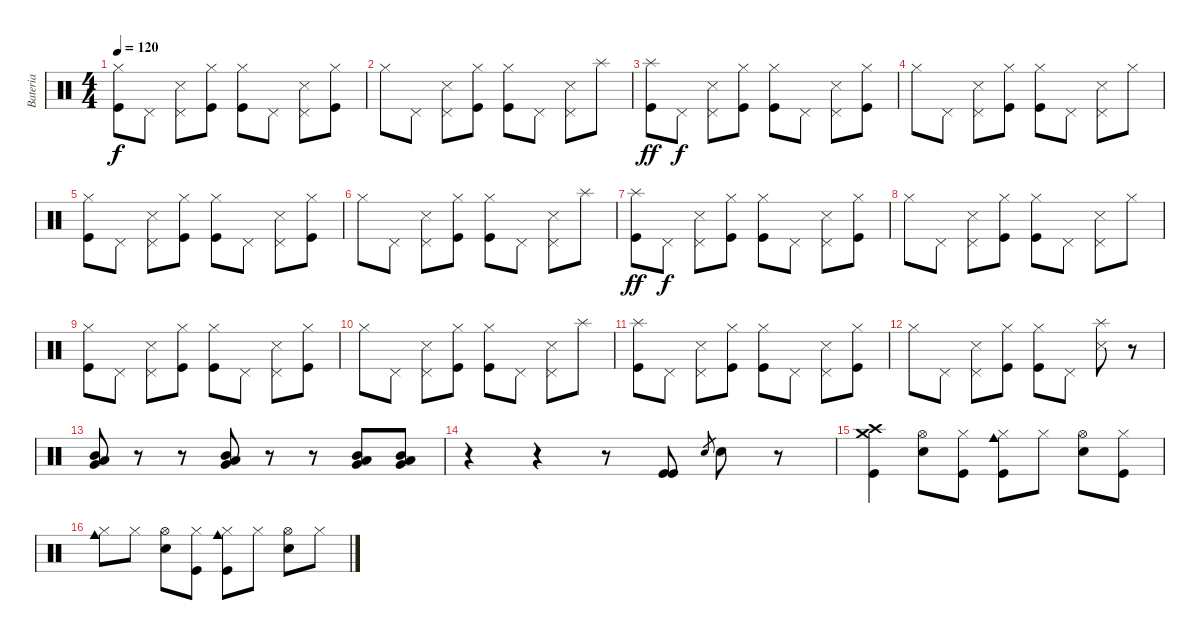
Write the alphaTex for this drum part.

\track ("Bateria" "Bateria") {instrument percussion}
\staff {score}
\articulation defaults
\ts (4 4)
\tempo 120
\clef neutral
\ks c
("Hi-Hat (closed)" "Kick (hit)").8{dy f} "Pedal Hi-Hat (hit)".8 ("Pedal Hi-Hat (hit)" "Snare (side stick) 3").8 ("Hi-Hat (closed)" "Kick (hit)").8 ("Hi-Hat (closed)" "Kick (hit)").8 "Pedal Hi-Hat (hit)".8 ("Pedal Hi-Hat (hit)" "Snare (side stick) 3").8 ("Hi-Hat (closed)" "Kick (hit)").8 |
"Hi-Hat (closed)".8 "Pedal Hi-Hat (hit)".8 ("Pedal Hi-Hat (hit)" "Snare (side stick) 3").8 ("Hi-Hat (closed)" "Kick (hit)").8 ("Hi-Hat (closed)" "Kick (hit)").8 "Pedal Hi-Hat (hit)".8 ("Pedal Hi-Hat (hit)" "Snare (side stick) 3").8 "Splash (hit)".8 |
("Splash (hit)" "Kick (hit)").8{dy ff} "Pedal Hi-Hat (hit)".8{dy f} ("Pedal Hi-Hat (hit)" "Snare (side stick) 3").8 ("Hi-Hat (closed)" "Kick (hit)").8 ("Hi-Hat (closed)" "Kick (hit)").8 "Pedal Hi-Hat (hit)".8 ("Pedal Hi-Hat (hit)" "Snare (side stick) 3").8 ("Hi-Hat (closed)" "Kick (hit)").8 |
"Hi-Hat (closed)".8 "Pedal Hi-Hat (hit)".8 ("Pedal Hi-Hat (hit)" "Snare (side stick) 3").8 ("Hi-Hat (closed)" "Kick (hit)").8 ("Hi-Hat (closed)" "Kick (hit)").8 "Pedal Hi-Hat (hit)".8 ("Pedal Hi-Hat (hit)" "Snare (side stick) 3").8 "Hi-Hat (closed)".8 |
("Hi-Hat (closed)" "Kick (hit)").8 "Pedal Hi-Hat (hit)".8 ("Pedal Hi-Hat (hit)" "Snare (side stick) 3").8 ("Hi-Hat (closed)" "Kick (hit)").8 ("Hi-Hat (closed)" "Kick (hit)").8 "Pedal Hi-Hat (hit)".8 ("Pedal Hi-Hat (hit)" "Snare (side stick) 3").8 ("Hi-Hat (closed)" "Kick (hit)").8 |
"Hi-Hat (closed)".8 "Pedal Hi-Hat (hit)".8 ("Pedal Hi-Hat (hit)" "Snare (side stick) 3").8 ("Hi-Hat (closed)" "Kick (hit)").8 ("Hi-Hat (closed)" "Kick (hit)").8 "Pedal Hi-Hat (hit)".8 ("Pedal Hi-Hat (hit)" "Snare (side stick) 3").8 "Splash (hit)".8 |
("Splash (hit)" "Kick (hit)").8{dy ff} "Pedal Hi-Hat (hit)".8{dy f} ("Pedal Hi-Hat (hit)" "Snare (side stick) 3").8 ("Hi-Hat (closed)" "Kick (hit)").8 ("Hi-Hat (closed)" "Kick (hit)").8 "Pedal Hi-Hat (hit)".8 ("Pedal Hi-Hat (hit)" "Snare (side stick) 3").8 ("Hi-Hat (closed)" "Kick (hit)").8 |
"Hi-Hat (closed)".8 "Pedal Hi-Hat (hit)".8 ("Pedal Hi-Hat (hit)" "Snare (side stick) 3").8 ("Hi-Hat (closed)" "Kick (hit)").8 ("Hi-Hat (closed)" "Kick (hit)").8 "Pedal Hi-Hat (hit)".8 ("Pedal Hi-Hat (hit)" "Snare (side stick) 3").8 "Hi-Hat (closed)".8 |
("Hi-Hat (closed)" "Kick (hit)").8 "Pedal Hi-Hat (hit)".8 ("Pedal Hi-Hat (hit)" "Snare (side stick) 3").8 ("Hi-Hat (closed)" "Kick (hit)").8 ("Hi-Hat (closed)" "Kick (hit)").8 "Pedal Hi-Hat (hit)".8 ("Pedal Hi-Hat (hit)" "Snare (side stick) 3").8 ("Hi-Hat (closed)" "Kick (hit)").8 |
"Hi-Hat (closed)".8 "Pedal Hi-Hat (hit)".8 ("Pedal Hi-Hat (hit)" "Snare (side stick) 3").8 ("Hi-Hat (closed)" "Kick (hit)").8 ("Hi-Hat (closed)" "Kick (hit)").8 "Pedal Hi-Hat (hit)".8 ("Pedal Hi-Hat (hit)" "Snare (side stick) 3").8 "Splash (hit)".8 |
("Splash (hit)" "Kick (hit)").8 "Pedal Hi-Hat (hit)".8 ("Pedal Hi-Hat (hit)" "Snare (side stick) 3").8 ("Hi-Hat (closed)" "Kick (hit)").8 ("Hi-Hat (closed)" "Kick (hit)").8 "Pedal Hi-Hat (hit)".8 ("Pedal Hi-Hat (hit)" "Snare (side stick) 3").8 ("Hi-Hat (closed)" "Kick (hit)").8 |
"Hi-Hat (closed)".8 "Pedal Hi-Hat (hit)".8 ("Pedal Hi-Hat (hit)" "Snare (side stick) 3").8 ("Hi-Hat (closed)" "Kick (hit)").8 ("Hi-Hat (closed)" "Kick (hit)").8 "Pedal Hi-Hat (hit)".8 ("Splash (hit)" "Snare (side stick) 3").8 r.8 |
("Mid Tom (hit)" "Low Tom (hit)" "Very Low Tom (hit)").8 r.8 r.8 ("Mid Tom (hit)" "Low Tom (hit)" "Very Low Tom (hit)").8 r.8 r.8 ("Mid Tom (hit)" "Low Tom (hit)" "Very Low Tom (hit)").8 ("Mid Tom (hit)" "Low Tom (hit)" "Very Low Tom (hit)").8 |
r.4 r.4 r.8 ("Kick (hit)" "Kick (hit)").8 "Electric Snare (hit)".8{gr} "Electric Snare (hit)".8 r.8 |
("Crash medium (hit)" "Crash high (hit)" "Kick (hit)").4 ("Hi-Hat (open)" "Electric Snare (hit)").8 ("Hi-Hat (closed)" "Kick (hit)").8 ("Hi-Hat (closed)" "Cowbell medium (hit)" "Kick (hit)").8 "Hi-Hat (closed)".8 ("Hi-Hat (open)" "Electric Snare (hit)").8 ("Hi-Hat (closed)" "Kick (hit)").8 |
("Hi-Hat (closed)" "Cowbell medium (hit)").8 "Hi-Hat (closed)".8 ("Hi-Hat (open)" "Electric Snare (hit)").8 ("Hi-Hat (closed)" "Kick (hit)").8 ("Hi-Hat (closed)" "Cowbell medium (hit)" "Kick (hit)").8 "Hi-Hat (closed)".8 ("Hi-Hat (open)" "Electric Snare (hit)").8 "Hi-Hat (closed)".8
